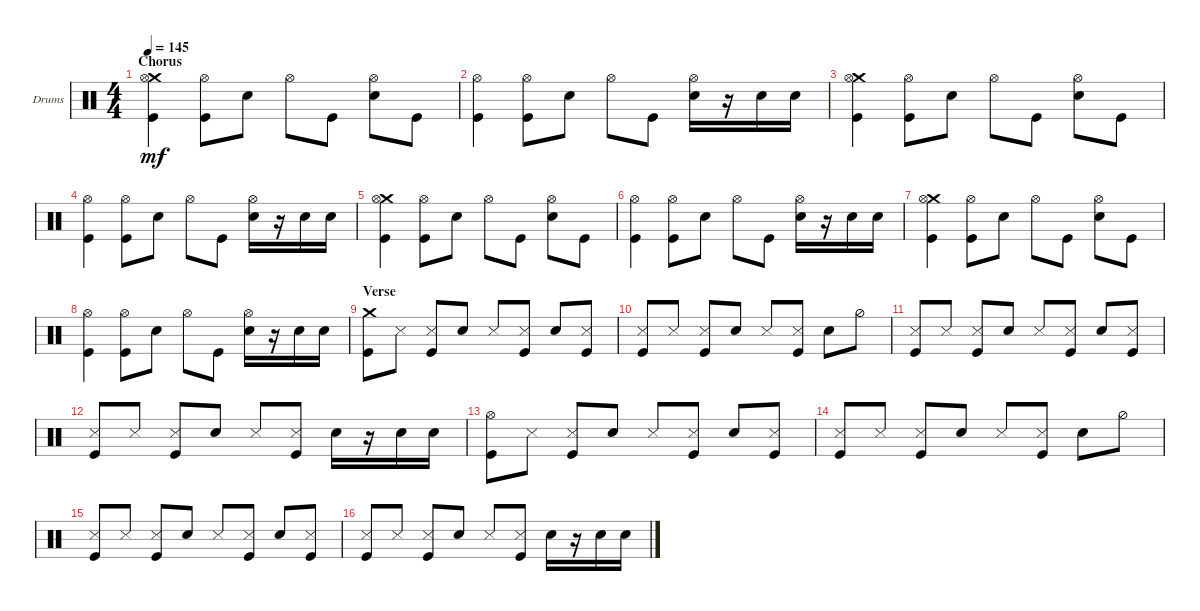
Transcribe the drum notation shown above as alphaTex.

\defaultSystemsLayout 4
\bracketExtendMode groupsimilarinstruments
\firstSystemTrackNameOrientation horizontal
\otherSystemsTrackNameOrientation horizontal
\track ("Matt Uychich" "Drums") {instrument percussion}
\staff {score}
\articulation defaults
\ts (4 4)
\section ("" "Chorus")
\tempo 145
\clef neutral
\scale
0.333333
\ks c
("Crash medium (hit)" "Hi-Hat (open)" "Kick (hit)").4{dy mf} ("Hi-Hat (open)" "Kick (hit)").8 "Snare (hit) 2".8 "Hi-Hat (open)".8 "Kick (hit)".8 ("Snare (hit) 2" "Hi-Hat (open)").8 "Kick (hit)".8 |
\scale
0.333333 ("Hi-Hat (open)" "Kick (hit)").4 ("Hi-Hat (open)" "Kick (hit)").8 "Snare (hit) 2".8 "Hi-Hat (open)".8 "Kick (hit)".8 ("Snare (hit) 2" "Hi-Hat (open)").16 r.16 "Snare (hit) 2".16 "Snare (hit) 2".16 |
\scale
0.333333 ("Crash medium (hit)" "Hi-Hat (open)" "Kick (hit)").4 ("Hi-Hat (open)" "Kick (hit)").8 "Snare (hit) 2".8 "Hi-Hat (open)".8 "Kick (hit)".8 ("Snare (hit) 2" "Hi-Hat (open)").8 "Kick (hit)".8 |
\scale
0.333333 ("Hi-Hat (open)" "Kick (hit)").4 ("Hi-Hat (open)" "Kick (hit)").8 "Snare (hit) 2".8 "Hi-Hat (open)".8 "Kick (hit)".8 ("Snare (hit) 2" "Hi-Hat (open)").16 r.16 "Snare (hit) 2".16 "Snare (hit) 2".16 |
\scale
0.333333 ("Crash medium (hit)" "Hi-Hat (open)" "Kick (hit)").4 ("Hi-Hat (open)" "Kick (hit)").8 "Snare (hit) 2".8 "Hi-Hat (open)".8 "Kick (hit)".8 ("Snare (hit) 2" "Hi-Hat (open)").8 "Kick (hit)".8 |
\scale
0.333333 ("Hi-Hat (open)" "Kick (hit)").4 ("Hi-Hat (open)" "Kick (hit)").8 "Snare (hit) 2".8 "Hi-Hat (open)".8 "Kick (hit)".8 ("Snare (hit) 2" "Hi-Hat (open)").16 r.16 "Snare (hit) 2".16 "Snare (hit) 2".16 |
\scale
0.333333 ("Crash medium (hit)" "Hi-Hat (open)" "Kick (hit)").4 ("Hi-Hat (open)" "Kick (hit)").8 "Snare (hit) 2".8 "Hi-Hat (open)".8 "Kick (hit)".8 ("Snare (hit) 2" "Hi-Hat (open)").8 "Kick (hit)".8 |
\scale
0.333333 ("Hi-Hat (open)" "Kick (hit)").4 ("Hi-Hat (open)" "Kick (hit)").8 "Snare (hit) 2".8 "Hi-Hat (open)".8 "Kick (hit)".8 ("Snare (hit) 2" "Hi-Hat (open)").16 r.16 "Snare (hit) 2".16 "Snare (hit) 2".16 |
\section ("" "Verse")
\scale
0.333333 ("Kick (hit)" "Crash medium (hit)").8 "Snare (side stick) 3".8 ("Snare (side stick) 3" "Kick (hit)").8 "Snare (hit) 2".8 "Snare (side stick) 3".8 ("Snare (side stick) 3" "Kick (hit)").8 "Snare (hit) 2".8 ("Snare (side stick) 3" "Kick (hit)").8 |
\scale
0.333333 ("Snare (side stick) 3" "Kick (hit)").8 "Snare (side stick) 3".8 ("Snare (side stick) 3" "Kick (hit)").8 "Snare (hit) 2".8 "Snare (side stick) 3".8 ("Snare (side stick) 3" "Kick (hit)").8 "Snare (hit) 2".8 "Hi-Hat (half)".8 |
\scale
0.333333 ("Snare (side stick) 3" "Kick (hit)").8 "Snare (side stick) 3".8 ("Snare (side stick) 3" "Kick (hit)").8 "Snare (hit) 2".8 "Snare (side stick) 3".8 ("Snare (side stick) 3" "Kick (hit)").8 "Snare (hit) 2".8 ("Snare (side stick) 3" "Kick (hit)").8 |
\scale
0.333333 ("Snare (side stick) 3" "Kick (hit)").8 "Snare (side stick) 3".8 ("Snare (side stick) 3" "Kick (hit)").8 "Snare (hit) 2".8 "Snare (side stick) 3".8 ("Snare (side stick) 3" "Kick (hit)").8 "Snare (hit) 2".16 r.16 "Snare (hit) 2".16 "Snare (hit) 2".16 |
\scale
0.333333 ("Kick (hit)" "Hi-Hat (open)").8 "Snare (side stick) 3".8 ("Snare (side stick) 3" "Kick (hit)").8 "Snare (hit) 2".8 "Snare (side stick) 3".8 ("Snare (side stick) 3" "Kick (hit)").8 "Snare (hit) 2".8 ("Snare (side stick) 3" "Kick (hit)").8 |
\scale
0.333333 ("Snare (side stick) 3" "Kick (hit)").8 "Snare (side stick) 3".8 ("Snare (side stick) 3" "Kick (hit)").8 "Snare (hit) 2".8 "Snare (side stick) 3".8 ("Snare (side stick) 3" "Kick (hit)").8 "Snare (hit) 2".8 "Hi-Hat (half)".8 |
\scale
0.333333 ("Snare (side stick) 3" "Kick (hit)").8 "Snare (side stick) 3".8 ("Snare (side stick) 3" "Kick (hit)").8 "Snare (hit) 2".8 "Snare (side stick) 3".8 ("Snare (side stick) 3" "Kick (hit)").8 "Snare (hit) 2".8 ("Snare (side stick) 3" "Kick (hit)").8 |
\scale
0.333333 ("Snare (side stick) 3" "Kick (hit)").8 "Snare (side stick) 3".8 ("Snare (side stick) 3" "Kick (hit)").8 "Snare (hit) 2".8 "Snare (side stick) 3".8 ("Snare (side stick) 3" "Kick (hit)").8 "Snare (hit) 2".16 r.16 "Snare (hit) 2".16 "Snare (hit) 2".16
